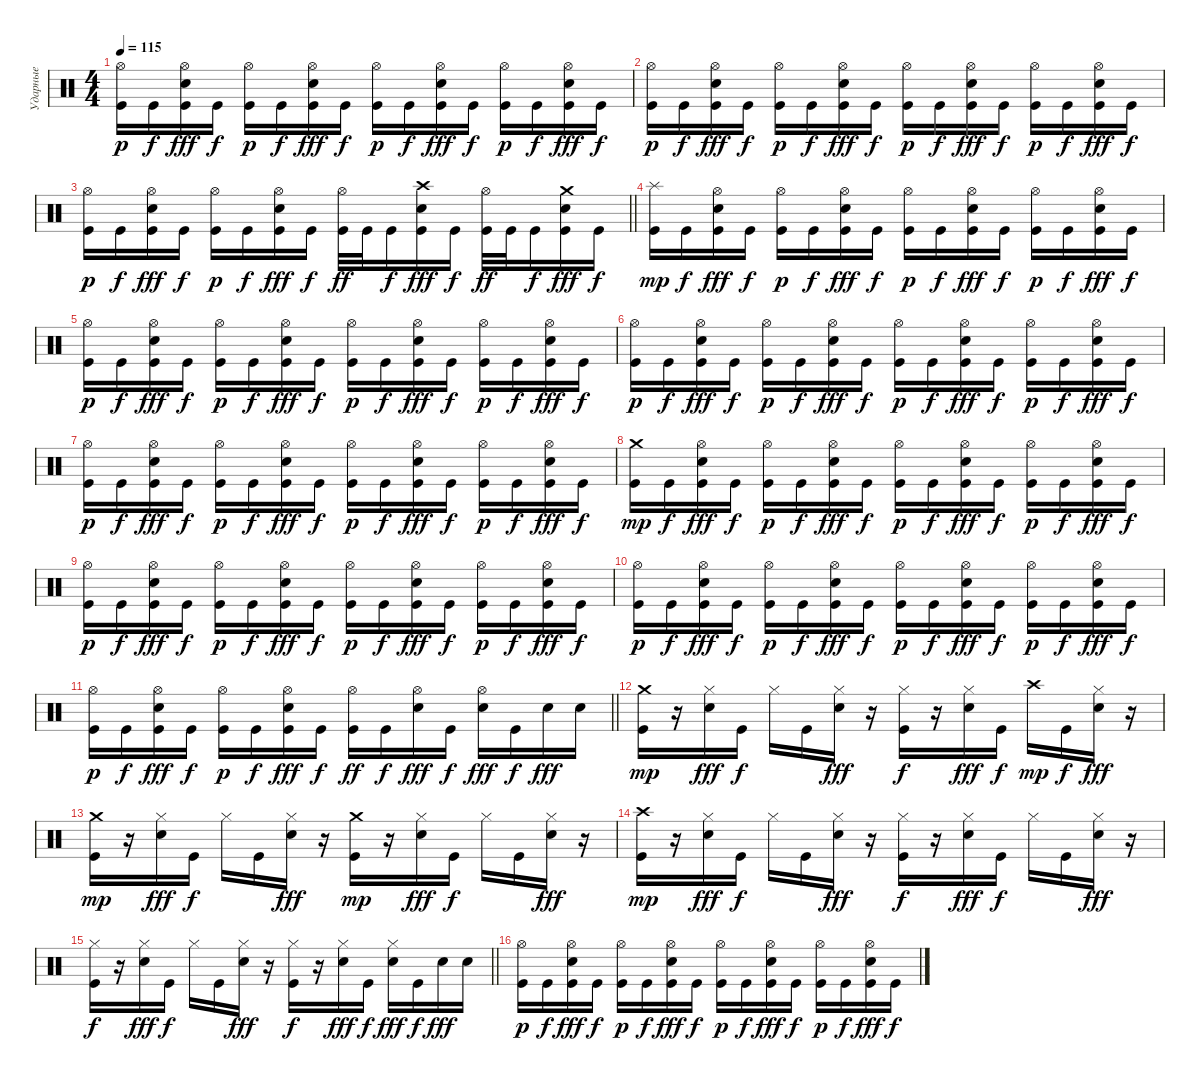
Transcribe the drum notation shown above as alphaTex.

\track ("Ударные" "Ударные") {instrument percussion}
\staff {score}
\articulation defaults
\ts (4 4)
\tempo 115
\clef neutral
\ks c
("Hi-Hat (open)" "Kick (hit)").16{dy p} "Kick (hit)".16{dy f} ("Hi-Hat (open)" "Electric Snare (hit)" "Kick (hit)").16{dy fff} "Kick (hit)".16{dy f} ("Hi-Hat (open)" "Kick (hit)").16{dy p} "Kick (hit)".16{dy f} ("Hi-Hat (open)" "Electric Snare (hit)" "Kick (hit)").16{dy fff} "Kick (hit)".16{dy f} ("Hi-Hat (open)" "Kick (hit)").16{dy p} "Kick (hit)".16{dy f} ("Hi-Hat (open)" "Electric Snare (hit)" "Kick (hit)").16{dy fff} "Kick (hit)".16{dy f} ("Hi-Hat (open)" "Kick (hit)").16{dy p} "Kick (hit)".16{dy f} ("Hi-Hat (open)" "Electric Snare (hit)" "Kick (hit)").16{dy fff} "Kick (hit)".16{dy f} |
("Hi-Hat (open)" "Kick (hit)").16{dy p} "Kick (hit)".16{dy f} ("Hi-Hat (open)" "Electric Snare (hit)" "Kick (hit)").16{dy fff} "Kick (hit)".16{dy f} ("Hi-Hat (open)" "Kick (hit)").16{dy p} "Kick (hit)".16{dy f} ("Hi-Hat (open)" "Electric Snare (hit)" "Kick (hit)").16{dy fff} "Kick (hit)".16{dy f} ("Hi-Hat (open)" "Kick (hit)").16{dy p} "Kick (hit)".16{dy f} ("Hi-Hat (open)" "Electric Snare (hit)" "Kick (hit)").16{dy fff} "Kick (hit)".16{dy f} ("Hi-Hat (open)" "Kick (hit)").16{dy p} "Kick (hit)".16{dy f} ("Hi-Hat (open)" "Electric Snare (hit)" "Kick (hit)").16{dy fff} "Kick (hit)".16{dy f} |
\barLineRight lightlight
("Hi-Hat (open)" "Kick (hit)").16{dy p} "Kick (hit)".16{dy f} ("Hi-Hat (open)" "Electric Snare (hit)" "Kick (hit)").16{dy fff} "Kick (hit)".16{dy f} ("Hi-Hat (open)" "Kick (hit)").16{dy p} "Kick (hit)".16{dy f} ("Hi-Hat (open)" "Electric Snare (hit)" "Kick (hit)").16{dy fff} "Kick (hit)".16{dy f} ("Hi-Hat (open)" "Kick (hit)").32{dy ff} "Kick (hit)".32 "Kick (hit)".16{dy f} ("Crash high (hit)" "Electric Snare (hit)" "Kick (hit)").16{dy fff} "Kick (hit)".16{dy f} ("Hi-Hat (open)" "Kick (hit)").32{dy ff} "Kick (hit)".32 "Kick (hit)".16{dy f} ("Crash medium (hit)" "Electric Snare (hit)" "Kick (hit)").16{dy fff} "Kick (hit)".16{dy f} |
\section ("" "")
("Splash (hit)" "Kick (hit)").16{dy mp} "Kick (hit)".16{dy f} ("Hi-Hat (open)" "Electric Snare (hit)" "Kick (hit)").16{dy fff} "Kick (hit)".16{dy f} ("Hi-Hat (open)" "Kick (hit)").16{dy p} "Kick (hit)".16{dy f} ("Hi-Hat (open)" "Electric Snare (hit)" "Kick (hit)").16{dy fff} "Kick (hit)".16{dy f} ("Hi-Hat (open)" "Kick (hit)").16{dy p} "Kick (hit)".16{dy f} ("Hi-Hat (open)" "Electric Snare (hit)" "Kick (hit)").16{dy fff} "Kick (hit)".16{dy f} ("Hi-Hat (open)" "Kick (hit)").16{dy p} "Kick (hit)".16{dy f} ("Hi-Hat (open)" "Electric Snare (hit)" "Kick (hit)").16{dy fff} "Kick (hit)".16{dy f} |
("Hi-Hat (open)" "Kick (hit)").16{dy p} "Kick (hit)".16{dy f} ("Hi-Hat (open)" "Electric Snare (hit)" "Kick (hit)").16{dy fff} "Kick (hit)".16{dy f} ("Hi-Hat (open)" "Kick (hit)").16{dy p} "Kick (hit)".16{dy f} ("Hi-Hat (open)" "Electric Snare (hit)" "Kick (hit)").16{dy fff} "Kick (hit)".16{dy f} ("Hi-Hat (open)" "Kick (hit)").16{dy p} "Kick (hit)".16{dy f} ("Hi-Hat (open)" "Electric Snare (hit)" "Kick (hit)").16{dy fff} "Kick (hit)".16{dy f} ("Hi-Hat (open)" "Kick (hit)").16{dy p} "Kick (hit)".16{dy f} ("Hi-Hat (open)" "Electric Snare (hit)" "Kick (hit)").16{dy fff} "Kick (hit)".16{dy f} |
("Hi-Hat (open)" "Kick (hit)").16{dy p} "Kick (hit)".16{dy f} ("Hi-Hat (open)" "Electric Snare (hit)" "Kick (hit)").16{dy fff} "Kick (hit)".16{dy f} ("Hi-Hat (open)" "Kick (hit)").16{dy p} "Kick (hit)".16{dy f} ("Hi-Hat (open)" "Electric Snare (hit)" "Kick (hit)").16{dy fff} "Kick (hit)".16{dy f} ("Hi-Hat (open)" "Kick (hit)").16{dy p} "Kick (hit)".16{dy f} ("Hi-Hat (open)" "Electric Snare (hit)" "Kick (hit)").16{dy fff} "Kick (hit)".16{dy f} ("Hi-Hat (open)" "Kick (hit)").16{dy p} "Kick (hit)".16{dy f} ("Hi-Hat (open)" "Electric Snare (hit)" "Kick (hit)").16{dy fff} "Kick (hit)".16{dy f} |
("Hi-Hat (open)" "Kick (hit)").16{dy p} "Kick (hit)".16{dy f} ("Hi-Hat (open)" "Electric Snare (hit)" "Kick (hit)").16{dy fff} "Kick (hit)".16{dy f} ("Hi-Hat (open)" "Kick (hit)").16{dy p} "Kick (hit)".16{dy f} ("Hi-Hat (open)" "Electric Snare (hit)" "Kick (hit)").16{dy fff} "Kick (hit)".16{dy f} ("Hi-Hat (open)" "Kick (hit)").16{dy p} "Kick (hit)".16{dy f} ("Hi-Hat (open)" "Electric Snare (hit)" "Kick (hit)").16{dy fff} "Kick (hit)".16{dy f} ("Hi-Hat (open)" "Kick (hit)").16{dy p} "Kick (hit)".16{dy f} ("Hi-Hat (open)" "Electric Snare (hit)" "Kick (hit)").16{dy fff} "Kick (hit)".16{dy f} |
("Crash medium (hit)" "Kick (hit)").16{dy mp} "Kick (hit)".16{dy f} ("Hi-Hat (open)" "Electric Snare (hit)" "Kick (hit)").16{dy fff} "Kick (hit)".16{dy f} ("Hi-Hat (open)" "Kick (hit)").16{dy p} "Kick (hit)".16{dy f} ("Hi-Hat (open)" "Electric Snare (hit)" "Kick (hit)").16{dy fff} "Kick (hit)".16{dy f} ("Hi-Hat (open)" "Kick (hit)").16{dy p} "Kick (hit)".16{dy f} ("Hi-Hat (open)" "Electric Snare (hit)" "Kick (hit)").16{dy fff} "Kick (hit)".16{dy f} ("Hi-Hat (open)" "Kick (hit)").16{dy p} "Kick (hit)".16{dy f} ("Hi-Hat (open)" "Electric Snare (hit)" "Kick (hit)").16{dy fff} "Kick (hit)".16{dy f} |
("Hi-Hat (open)" "Kick (hit)").16{dy p} "Kick (hit)".16{dy f} ("Hi-Hat (open)" "Electric Snare (hit)" "Kick (hit)").16{dy fff} "Kick (hit)".16{dy f} ("Hi-Hat (open)" "Kick (hit)").16{dy p} "Kick (hit)".16{dy f} ("Hi-Hat (open)" "Electric Snare (hit)" "Kick (hit)").16{dy fff} "Kick (hit)".16{dy f} ("Hi-Hat (open)" "Kick (hit)").16{dy p} "Kick (hit)".16{dy f} ("Hi-Hat (open)" "Electric Snare (hit)" "Kick (hit)").16{dy fff} "Kick (hit)".16{dy f} ("Hi-Hat (open)" "Kick (hit)").16{dy p} "Kick (hit)".16{dy f} ("Hi-Hat (open)" "Electric Snare (hit)" "Kick (hit)").16{dy fff} "Kick (hit)".16{dy f} |
("Hi-Hat (open)" "Kick (hit)").16{dy p} "Kick (hit)".16{dy f} ("Hi-Hat (open)" "Electric Snare (hit)" "Kick (hit)").16{dy fff} "Kick (hit)".16{dy f} ("Hi-Hat (open)" "Kick (hit)").16{dy p} "Kick (hit)".16{dy f} ("Hi-Hat (open)" "Electric Snare (hit)" "Kick (hit)").16{dy fff} "Kick (hit)".16{dy f} ("Hi-Hat (open)" "Kick (hit)").16{dy p} "Kick (hit)".16{dy f} ("Hi-Hat (open)" "Electric Snare (hit)" "Kick (hit)").16{dy fff} "Kick (hit)".16{dy f} ("Hi-Hat (open)" "Kick (hit)").16{dy p} "Kick (hit)".16{dy f} ("Hi-Hat (open)" "Electric Snare (hit)" "Kick (hit)").16{dy fff} "Kick (hit)".16{dy f} |
\barLineRight lightlight
("Hi-Hat (open)" "Kick (hit)").16{dy p} "Kick (hit)".16{dy f} ("Hi-Hat (open)" "Electric Snare (hit)" "Kick (hit)").16{dy fff} "Kick (hit)".16{dy f} ("Hi-Hat (open)" "Kick (hit)").16{dy p} "Kick (hit)".16{dy f} ("Hi-Hat (open)" "Electric Snare (hit)" "Kick (hit)").16{dy fff} "Kick (hit)".16{dy f} ("Hi-Hat (open)" "Kick (hit)").16{dy ff} "Kick (hit)".16{dy f} ("Hi-Hat (open)" "Electric Snare (hit)").16{dy fff} "Kick (hit)".16{dy f} ("Hi-Hat (open)" "Electric Snare (hit)").16{dy fff} "Kick (hit)".16{dy f} "Electric Snare (hit)".16{dy fff} "Electric Snare (hit)".16 |
\section ("" "")
("Crash medium (hit)" "Kick (hit)").16{dy mp} r.16 ("Hi-Hat (closed)" "Electric Snare (hit)").16{dy fff} "Kick (hit)".16{dy f} "Hi-Hat (closed)".16 "Kick (hit)".16 ("Hi-Hat (closed)" "Electric Snare (hit)").16{dy fff} r.16 ("Hi-Hat (closed)" "Kick (hit)").16{dy f} r.16 ("Hi-Hat (closed)" "Electric Snare (hit)").16{dy fff} "Kick (hit)".16{dy f} "Crash high (hit)".16{dy mp} "Kick (hit)".16{dy f} ("Hi-Hat (closed)" "Electric Snare (hit)").16{dy fff} r.16 |
("Crash medium (hit)" "Kick (hit)").16{dy mp} r.16 ("Hi-Hat (closed)" "Electric Snare (hit)").16{dy fff} "Kick (hit)".16{dy f} "Hi-Hat (closed)".16 "Kick (hit)".16 ("Hi-Hat (closed)" "Electric Snare (hit)").16{dy fff} r.16 ("Crash medium (hit)" "Kick (hit)").16{dy mp} r.16 ("Hi-Hat (closed)" "Electric Snare (hit)").16{dy fff} "Kick (hit)".16{dy f} "Hi-Hat (closed)".16 "Kick (hit)".16 ("Hi-Hat (closed)" "Electric Snare (hit)").16{dy fff} r.16 |
("Crash high (hit)" "Kick (hit)").16{dy mp} r.16 ("Hi-Hat (closed)" "Electric Snare (hit)").16{dy fff} "Kick (hit)".16{dy f} "Hi-Hat (closed)".16 "Kick (hit)".16 ("Hi-Hat (closed)" "Electric Snare (hit)").16{dy fff} r.16 ("Hi-Hat (closed)" "Kick (hit)").16{dy f} r.16 ("Hi-Hat (closed)" "Electric Snare (hit)").16{dy fff} "Kick (hit)".16{dy f} "Hi-Hat (closed)".16 "Kick (hit)".16 ("Hi-Hat (closed)" "Electric Snare (hit)").16{dy fff} r.16 |
\barLineRight lightlight
("Hi-Hat (closed)" "Kick (hit)").16{dy f} r.16 ("Hi-Hat (closed)" "Electric Snare (hit)").16{dy fff} "Kick (hit)".16{dy f} "Hi-Hat (closed)".16 "Kick (hit)".16 ("Hi-Hat (closed)" "Electric Snare (hit)").16{dy fff} r.16 ("Hi-Hat (closed)" "Kick (hit)").16{dy f} r.16 ("Hi-Hat (closed)" "Electric Snare (hit)").16{dy fff} "Kick (hit)".16{dy f} ("Hi-Hat (closed)" "Electric Snare (hit)").16{dy fff} "Kick (hit)".16{dy f} "Electric Snare (hit)".16{dy fff} "Electric Snare (hit)".16 |
\section ("" "")
("Hi-Hat (open)" "Kick (hit)").16{dy p} "Kick (hit)".16{dy f} ("Hi-Hat (open)" "Electric Snare (hit)" "Kick (hit)").16{dy fff} "Kick (hit)".16{dy f} ("Hi-Hat (open)" "Kick (hit)").16{dy p} "Kick (hit)".16{dy f} ("Hi-Hat (open)" "Electric Snare (hit)" "Kick (hit)").16{dy fff} "Kick (hit)".16{dy f} ("Hi-Hat (open)" "Kick (hit)").16{dy p} "Kick (hit)".16{dy f} ("Hi-Hat (open)" "Electric Snare (hit)" "Kick (hit)").16{dy fff} "Kick (hit)".16{dy f} ("Hi-Hat (open)" "Kick (hit)").16{dy p} "Kick (hit)".16{dy f} ("Hi-Hat (open)" "Electric Snare (hit)" "Kick (hit)").16{dy fff} "Kick (hit)".16{dy f}
